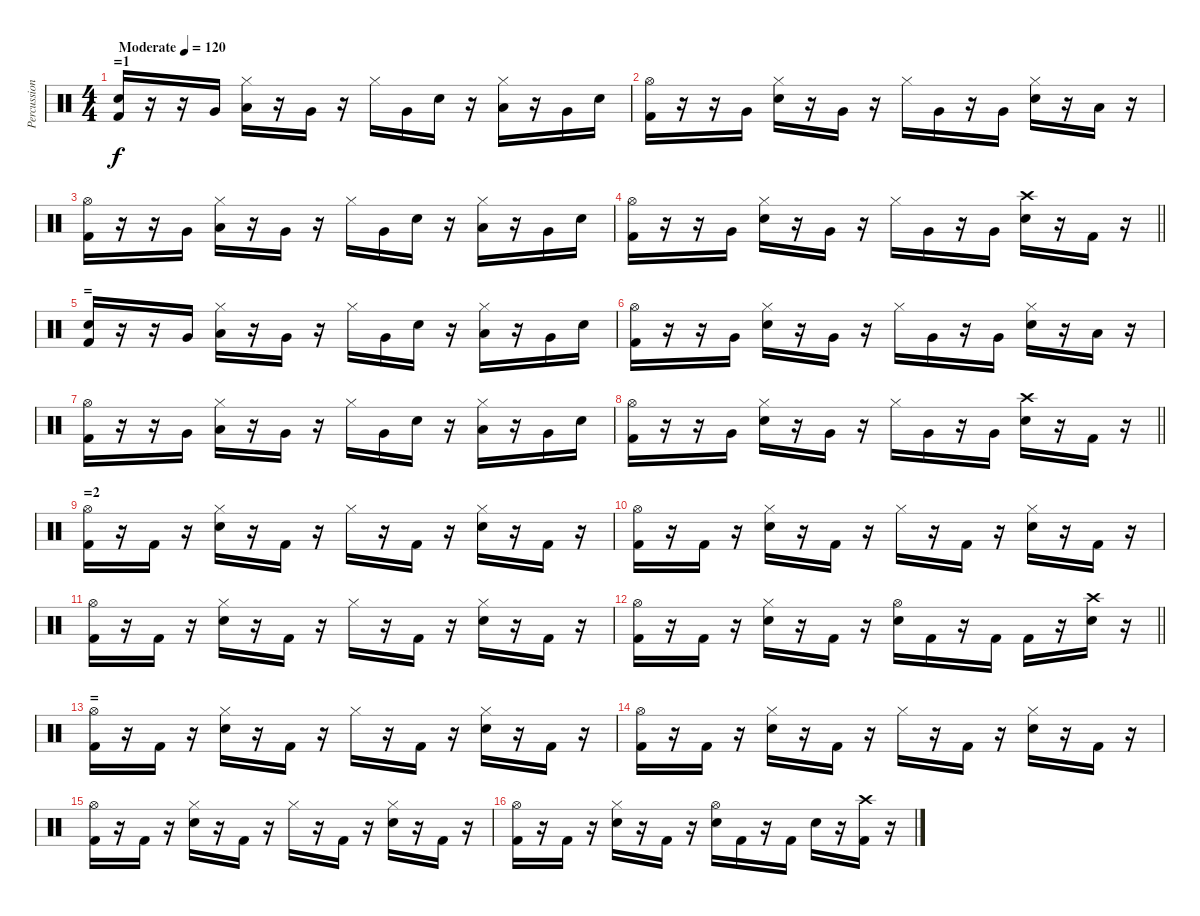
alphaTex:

\track ("Percussion" "Percussion") {instrument percussion}
\staff {score}
\articulation defaults
\ts (4 4)
\section ("" "=1")
\tempo (120 "Moderate")
\clef neutral
\ks c
("Kick (hit) 2" "Electric Snare (hit)").16{dy f} r.16 r.16 "Very Low Tom (hit)".16 ("Low Tom (hit)" "Hi-Hat (closed)").16 r.16 "Very Low Tom (hit)".16 r.16 "Hi-Hat (closed)".16 "Very Low Tom (hit)".16 "Electric Snare (hit)".16 r.16 ("Low Tom (hit)" "Hi-Hat (closed)").16 r.16 "Very Low Tom (hit)".16 "Electric Snare (hit)".16 |
("Kick (hit) 2" "Hi-Hat (open)").16 r.16 r.16 "Very Low Tom (hit)".16 ("Electric Snare (hit)" "Hi-Hat (closed)").16 r.16 "Very Low Tom (hit)".16 r.16 "Hi-Hat (closed)".16 "Very Low Tom (hit)".16 r.16 "Very Low Tom (hit)".16 ("Electric Snare (hit)" "Hi-Hat (closed)").16 r.16 "Low Floor Tom (hit)".16 r.16 |
("Kick (hit) 2" "Hi-Hat (open)").16 r.16 r.16 "Very Low Tom (hit)".16 ("Low Tom (hit)" "Hi-Hat (closed)").16 r.16 "Very Low Tom (hit)".16 r.16 "Hi-Hat (closed)".16 "Very Low Tom (hit)".16 "Electric Snare (hit)".16 r.16 ("Low Tom (hit)" "Hi-Hat (closed)").16 r.16 "Very Low Tom (hit)".16 "Electric Snare (hit)".16 |
\barLineRight lightlight
("Kick (hit) 2" "Hi-Hat (open)").16 r.16 r.16 "Very Low Tom (hit)".16 ("Electric Snare (hit)" "Hi-Hat (closed)").16 r.16 "Very Low Tom (hit)".16 r.16 "Hi-Hat (closed)".16 "Very Low Tom (hit)".16 r.16 "Very Low Tom (hit)".16 ("Electric Snare (hit)" "Crash high (hit)").16 r.16 "Kick (hit) 2".16 r.16 |
\section ("" "=")
("Kick (hit) 2" "Electric Snare (hit)").16 r.16 r.16 "Very Low Tom (hit)".16 ("Low Tom (hit)" "Hi-Hat (closed)").16 r.16 "Very Low Tom (hit)".16 r.16 "Hi-Hat (closed)".16 "Very Low Tom (hit)".16 "Electric Snare (hit)".16 r.16 ("Low Tom (hit)" "Hi-Hat (closed)").16 r.16 "Very Low Tom (hit)".16 "Electric Snare (hit)".16 |
("Kick (hit) 2" "Hi-Hat (open)").16 r.16 r.16 "Very Low Tom (hit)".16 ("Electric Snare (hit)" "Hi-Hat (closed)").16 r.16 "Very Low Tom (hit)".16 r.16 "Hi-Hat (closed)".16 "Very Low Tom (hit)".16 r.16 "Very Low Tom (hit)".16 ("Electric Snare (hit)" "Hi-Hat (closed)").16 r.16 "Low Floor Tom (hit)".16 r.16 |
("Kick (hit) 2" "Hi-Hat (open)").16 r.16 r.16 "Very Low Tom (hit)".16 ("Low Tom (hit)" "Hi-Hat (closed)").16 r.16 "Very Low Tom (hit)".16 r.16 "Hi-Hat (closed)".16 "Very Low Tom (hit)".16 "Electric Snare (hit)".16 r.16 ("Low Tom (hit)" "Hi-Hat (closed)").16 r.16 "Very Low Tom (hit)".16 "Electric Snare (hit)".16 |
\barLineRight lightlight
("Kick (hit) 2" "Hi-Hat (open)").16 r.16 r.16 "Very Low Tom (hit)".16 ("Electric Snare (hit)" "Hi-Hat (closed)").16 r.16 "Very Low Tom (hit)".16 r.16 "Hi-Hat (closed)".16 "Very Low Tom (hit)".16 r.16 "Very Low Tom (hit)".16 ("Electric Snare (hit)" "Crash high (hit)").16 r.16 "Kick (hit) 2".16 r.16 |
\section ("" "=2")
("Kick (hit) 2" "Hi-Hat (open)").16 r.16 "Kick (hit) 2".16 r.16 ("Electric Snare (hit)" "Hi-Hat (closed)").16 r.16 "Kick (hit) 2".16 r.16 "Hi-Hat (closed)".16 r.16 "Kick (hit) 2".16 r.16 ("Electric Snare (hit)" "Hi-Hat (closed)").16 r.16 "Kick (hit) 2".16 r.16 |
("Kick (hit) 2" "Hi-Hat (open)").16 r.16 "Kick (hit) 2".16 r.16 ("Electric Snare (hit)" "Hi-Hat (closed)").16 r.16 "Kick (hit) 2".16 r.16 "Hi-Hat (closed)".16 r.16 "Kick (hit) 2".16 r.16 ("Electric Snare (hit)" "Hi-Hat (closed)").16 r.16 "Kick (hit) 2".16 r.16 |
("Kick (hit) 2" "Hi-Hat (open)").16 r.16 "Kick (hit) 2".16 r.16 ("Electric Snare (hit)" "Hi-Hat (closed)").16 r.16 "Kick (hit) 2".16 r.16 "Hi-Hat (closed)".16 r.16 "Kick (hit) 2".16 r.16 ("Electric Snare (hit)" "Hi-Hat (closed)").16 r.16 "Kick (hit) 2".16 r.16 |
\barLineRight lightlight
("Kick (hit) 2" "Hi-Hat (open)").16 r.16 "Kick (hit) 2".16 r.16 ("Electric Snare (hit)" "Hi-Hat (closed)").16 r.16 "Kick (hit) 2".16 r.16 ("Electric Snare (hit)" "Hi-Hat (open)").16 "Kick (hit) 2".16 r.16 "Kick (hit) 2".16 "Kick (hit) 2".16 r.16 ("Electric Snare (hit)" "Crash high (hit)").16 r.16 |
\section ("" "=")
("Kick (hit) 2" "Hi-Hat (open)").16 r.16 "Kick (hit) 2".16 r.16 ("Electric Snare (hit)" "Hi-Hat (closed)").16 r.16 "Kick (hit) 2".16 r.16 "Hi-Hat (closed)".16 r.16 "Kick (hit) 2".16 r.16 ("Electric Snare (hit)" "Hi-Hat (closed)").16 r.16 "Kick (hit) 2".16 r.16 |
("Kick (hit) 2" "Hi-Hat (open)").16 r.16 "Kick (hit) 2".16 r.16 ("Electric Snare (hit)" "Hi-Hat (closed)").16 r.16 "Kick (hit) 2".16 r.16 "Hi-Hat (closed)".16 r.16 "Kick (hit) 2".16 r.16 ("Electric Snare (hit)" "Hi-Hat (closed)").16 r.16 "Kick (hit) 2".16 r.16 |
("Kick (hit) 2" "Hi-Hat (open)").16 r.16 "Kick (hit) 2".16 r.16 ("Electric Snare (hit)" "Hi-Hat (closed)").16 r.16 "Kick (hit) 2".16 r.16 "Hi-Hat (closed)".16 r.16 "Kick (hit) 2".16 r.16 ("Electric Snare (hit)" "Hi-Hat (closed)").16 r.16 "Kick (hit) 2".16 r.16 |
("Kick (hit) 2" "Hi-Hat (open)").16 r.16 "Kick (hit) 2".16 r.16 ("Electric Snare (hit)" "Hi-Hat (closed)").16 r.16 "Kick (hit) 2".16 r.16 ("Electric Snare (hit)" "Hi-Hat (open)").16 "Kick (hit) 2".16 r.16 "Kick (hit) 2".16 "Electric Snare (hit)".16 r.16 ("Kick (hit) 2" "Crash high (hit)").16 r.16
